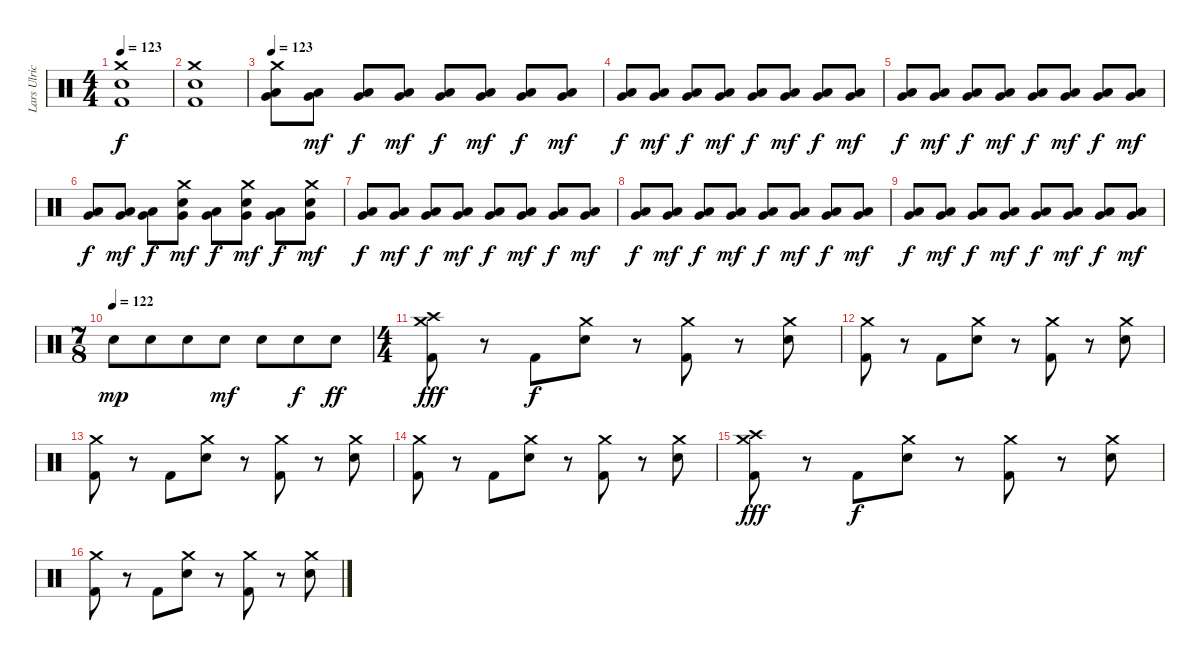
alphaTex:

\track ("Lars Ulrich" "Lars Ulric") {instrument percussion}
\staff {score}
\articulation defaults
\ts (4 4)
\tempo 123
\clef neutral
\ks c
("Crash medium (hit)" "Kick (hit) 2" "Electric Snare (hit)").1{dy f} |
("Crash medium (hit)" "Kick (hit) 2" "Electric Snare (hit)").1 |
\tempo 123
("Low Floor Tom (hit)" "Very Low Tom (hit)" "Crash medium (hit)").8 ("Low Floor Tom (hit)" "Very Low Tom (hit)").8{dy mf} ("Low Floor Tom (hit)" "Very Low Tom (hit)").8{dy f} ("Low Floor Tom (hit)" "Very Low Tom (hit)").8{dy mf} ("Low Floor Tom (hit)" "Very Low Tom (hit)").8{dy f} ("Low Floor Tom (hit)" "Very Low Tom (hit)").8{dy mf} ("Low Floor Tom (hit)" "Very Low Tom (hit)").8{dy f} ("Low Floor Tom (hit)" "Very Low Tom (hit)").8{dy mf} |
("Low Floor Tom (hit)" "Very Low Tom (hit)").8{dy f} ("Low Floor Tom (hit)" "Very Low Tom (hit)").8{dy mf} ("Low Floor Tom (hit)" "Very Low Tom (hit)").8{dy f} ("Low Floor Tom (hit)" "Very Low Tom (hit)").8{dy mf} ("Low Floor Tom (hit)" "Very Low Tom (hit)").8{dy f} ("Low Floor Tom (hit)" "Very Low Tom (hit)").8{dy mf} ("Low Floor Tom (hit)" "Very Low Tom (hit)").8{dy f} ("Low Floor Tom (hit)" "Very Low Tom (hit)").8{dy mf} |
("Low Floor Tom (hit)" "Very Low Tom (hit)").8{dy f} ("Low Floor Tom (hit)" "Very Low Tom (hit)").8{dy mf} ("Low Floor Tom (hit)" "Very Low Tom (hit)").8{dy f} ("Low Floor Tom (hit)" "Very Low Tom (hit)").8{dy mf} ("Low Floor Tom (hit)" "Very Low Tom (hit)").8{dy f} ("Low Floor Tom (hit)" "Very Low Tom (hit)").8{dy mf} ("Low Floor Tom (hit)" "Very Low Tom (hit)").8{dy f} ("Low Floor Tom (hit)" "Very Low Tom (hit)").8{dy mf} |
("Low Floor Tom (hit)" "Very Low Tom (hit)").8{dy f} ("Low Floor Tom (hit)" "Very Low Tom (hit)").8{dy mf} ("Low Floor Tom (hit)" "Very Low Tom (hit)").8{dy f} ("Crash medium (hit)" "Electric Snare (hit)" "Very Low Tom (hit)").8{dy mf} ("Low Floor Tom (hit)" "Very Low Tom (hit)").8{dy f} ("Crash medium (hit)" "Electric Snare (hit)" "Very Low Tom (hit)").8{dy mf} ("Low Floor Tom (hit)" "Very Low Tom (hit)").8{dy f} ("Crash medium (hit)" "Electric Snare (hit)" "Very Low Tom (hit)").8{dy mf} |
("Low Floor Tom (hit)" "Very Low Tom (hit)").8{dy f} ("Low Floor Tom (hit)" "Very Low Tom (hit)").8{dy mf} ("Low Floor Tom (hit)" "Very Low Tom (hit)").8{dy f} ("Low Floor Tom (hit)" "Very Low Tom (hit)").8{dy mf} ("Low Floor Tom (hit)" "Very Low Tom (hit)").8{dy f} ("Low Floor Tom (hit)" "Very Low Tom (hit)").8{dy mf} ("Low Floor Tom (hit)" "Very Low Tom (hit)").8{dy f} ("Low Floor Tom (hit)" "Very Low Tom (hit)").8{dy mf} |
("Low Floor Tom (hit)" "Very Low Tom (hit)").8{dy f} ("Low Floor Tom (hit)" "Very Low Tom (hit)").8{dy mf} ("Low Floor Tom (hit)" "Very Low Tom (hit)").8{dy f} ("Low Floor Tom (hit)" "Very Low Tom (hit)").8{dy mf} ("Low Floor Tom (hit)" "Very Low Tom (hit)").8{dy f} ("Low Floor Tom (hit)" "Very Low Tom (hit)").8{dy mf} ("Low Floor Tom (hit)" "Very Low Tom (hit)").8{dy f} ("Low Floor Tom (hit)" "Very Low Tom (hit)").8{dy mf} |
("Low Floor Tom (hit)" "Very Low Tom (hit)").8{dy f} ("Low Floor Tom (hit)" "Very Low Tom (hit)").8{dy mf} ("Low Floor Tom (hit)" "Very Low Tom (hit)").8{dy f} ("Low Floor Tom (hit)" "Very Low Tom (hit)").8{dy mf} ("Low Floor Tom (hit)" "Very Low Tom (hit)").8{dy f} ("Low Floor Tom (hit)" "Very Low Tom (hit)").8{dy mf} ("Low Floor Tom (hit)" "Very Low Tom (hit)").8{dy f} ("Low Floor Tom (hit)" "Very Low Tom (hit)").8{dy mf} |
\ts (7 8)
\tempo (122)
"Electric Snare (hit)".8{dy mp} "Electric Snare (hit)".8 "Electric Snare (hit)".8 "Electric Snare (hit)".8{dy mf} "Electric Snare (hit)".8 "Electric Snare (hit)".8{dy f} "Electric Snare (hit)".8{dy ff} |
\ts (4 4)
("Crash high (hit)" "Crash medium (hit)" "Kick (hit) 2").8{dy fff} r.8 "Kick (hit) 2".8{dy f} ("Crash medium (hit)" "Electric Snare (hit)").8 r.8 ("Crash medium (hit)" "Kick (hit) 2").8 r.8 ("Crash medium (hit)" "Electric Snare (hit)").8 |
("Crash medium (hit)" "Kick (hit) 2").8 r.8 "Kick (hit) 2".8 ("Crash medium (hit)" "Electric Snare (hit)").8 r.8 ("Crash medium (hit)" "Kick (hit) 2").8 r.8 ("Crash medium (hit)" "Electric Snare (hit)").8 |
("Crash medium (hit)" "Kick (hit) 2").8 r.8 "Kick (hit) 2".8 ("Crash medium (hit)" "Electric Snare (hit)").8 r.8 ("Crash medium (hit)" "Kick (hit) 2").8 r.8 ("Crash medium (hit)" "Electric Snare (hit)").8 |
("Crash medium (hit)" "Kick (hit) 2").8 r.8 "Kick (hit) 2".8 ("Crash medium (hit)" "Electric Snare (hit)").8 r.8 ("Crash medium (hit)" "Kick (hit) 2").8 r.8 ("Crash medium (hit)" "Electric Snare (hit)").8 |
("Crash high (hit)" "Crash medium (hit)" "Kick (hit) 2").8{dy fff} r.8 "Kick (hit) 2".8{dy f} ("Crash medium (hit)" "Electric Snare (hit)").8 r.8 ("Crash medium (hit)" "Kick (hit) 2").8 r.8 ("Crash medium (hit)" "Electric Snare (hit)").8 |
("Crash medium (hit)" "Kick (hit) 2").8 r.8 "Kick (hit) 2".8 ("Crash medium (hit)" "Electric Snare (hit)").8 r.8 ("Crash medium (hit)" "Kick (hit) 2").8 r.8 ("Crash medium (hit)" "Electric Snare (hit)").8
